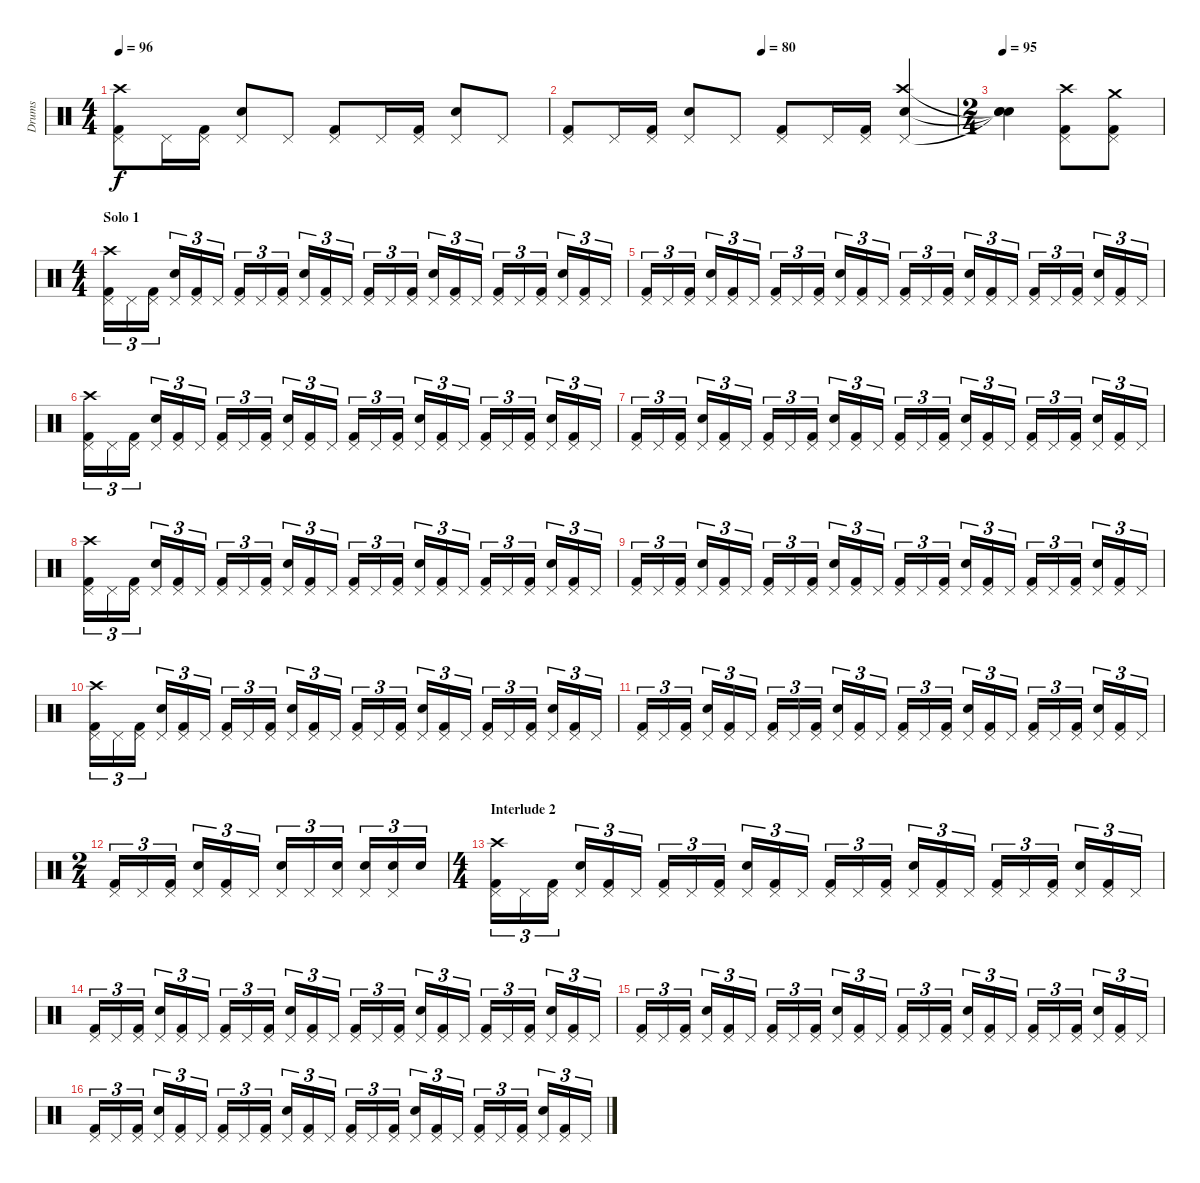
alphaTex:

\track ("Drums" "Drums") {instrument percussion}
\staff {score}
\articulation defaults
\ts (4 4)
\tempo 96
\clef neutral
\ks c
("Kick (hit) 2" "Pedal Hi-Hat (hit)" "Crash high (hit)").8{dy f} "Pedal Hi-Hat (hit)".16 ("Kick (hit) 2" "Pedal Hi-Hat (hit)").16 ("Snare (hit) 2" "Pedal Hi-Hat (hit)").8 "Pedal Hi-Hat (hit)".8 ("Kick (hit) 2" "Pedal Hi-Hat (hit)").8 "Pedal Hi-Hat (hit)".16 ("Kick (hit) 2" "Pedal Hi-Hat (hit)").16 ("Snare (hit) 2" "Pedal Hi-Hat (hit)").8 "Pedal Hi-Hat (hit)".8 |
\tempo (80 0.5)
("Kick (hit) 2" "Pedal Hi-Hat (hit)").8 "Pedal Hi-Hat (hit)".16 ("Kick (hit) 2" "Pedal Hi-Hat (hit)").16 ("Snare (hit) 2" "Pedal Hi-Hat (hit)").8 "Pedal Hi-Hat (hit)".8 ("Kick (hit) 2" "Pedal Hi-Hat (hit)").8 "Pedal Hi-Hat (hit)".16 ("Kick (hit) 2" "Pedal Hi-Hat (hit)").16 ("Snare (hit) 2" "Pedal Hi-Hat (hit)" "Crash high (hit)").4 |
\ts (2 4)
\tempo 95
("Snare (hit)"{t} "Snare (hit)"{t} "Snare (hit)"{t}).4 ("Kick (hit) 2" "Pedal Hi-Hat (hit)" "Crash high (hit)").8 ("Kick (hit) 2" "Pedal Hi-Hat (hit)" "Crash medium (hit)").8 |
\ts (4 4)
\section ("" "Solo 1")
("Kick (hit) 2" "Pedal Hi-Hat (hit)" "Crash high (hit)").16{tu (3 2)} "Pedal Hi-Hat (hit)".16{tu (3 2)} ("Kick (hit) 2" "Pedal Hi-Hat (hit)").16{tu (3 2)} ("Snare (hit) 2" "Pedal Hi-Hat (hit)").16{tu (3 2)} ("Kick (hit) 2" "Pedal Hi-Hat (hit)").16{tu (3 2)} "Pedal Hi-Hat (hit)".16{tu (3 2)} ("Kick (hit) 2" "Pedal Hi-Hat (hit)").16{tu (3 2)} "Pedal Hi-Hat (hit)".16{tu (3 2)} ("Kick (hit) 2" "Pedal Hi-Hat (hit)").16{tu (3 2)} ("Snare (hit) 2" "Pedal Hi-Hat (hit)").16{tu (3 2)} ("Kick (hit) 2" "Pedal Hi-Hat (hit)").16{tu (3 2)} "Pedal Hi-Hat (hit)".16{tu (3 2)} ("Kick (hit) 2" "Pedal Hi-Hat (hit)").16{tu (3 2)} "Pedal Hi-Hat (hit)".16{tu (3 2)} ("Kick (hit) 2" "Pedal Hi-Hat (hit)").16{tu (3 2)} ("Snare (hit) 2" "Pedal Hi-Hat (hit)").16{tu (3 2)} ("Kick (hit) 2" "Pedal Hi-Hat (hit)").16{tu (3 2)} "Pedal Hi-Hat (hit)".16{tu (3 2)} ("Kick (hit) 2" "Pedal Hi-Hat (hit)").16{tu (3 2)} "Pedal Hi-Hat (hit)".16{tu (3 2)} ("Kick (hit) 2" "Pedal Hi-Hat (hit)").16{tu (3 2)} ("Snare (hit) 2" "Pedal Hi-Hat (hit)").16{tu (3 2)} ("Kick (hit) 2" "Pedal Hi-Hat (hit)").16{tu (3 2)} "Pedal Hi-Hat (hit)".16{tu (3 2)} |
("Kick (hit) 2" "Pedal Hi-Hat (hit)").16{tu (3 2)} "Pedal Hi-Hat (hit)".16{tu (3 2)} ("Kick (hit) 2" "Pedal Hi-Hat (hit)").16{tu (3 2)} ("Snare (hit) 2" "Pedal Hi-Hat (hit)").16{tu (3 2)} ("Kick (hit) 2" "Pedal Hi-Hat (hit)").16{tu (3 2)} "Pedal Hi-Hat (hit)".16{tu (3 2)} ("Kick (hit) 2" "Pedal Hi-Hat (hit)").16{tu (3 2)} "Pedal Hi-Hat (hit)".16{tu (3 2)} ("Kick (hit) 2" "Pedal Hi-Hat (hit)").16{tu (3 2)} ("Snare (hit) 2" "Pedal Hi-Hat (hit)").16{tu (3 2)} ("Kick (hit) 2" "Pedal Hi-Hat (hit)").16{tu (3 2)} "Pedal Hi-Hat (hit)".16{tu (3 2)} ("Kick (hit) 2" "Pedal Hi-Hat (hit)").16{tu (3 2)} "Pedal Hi-Hat (hit)".16{tu (3 2)} ("Kick (hit) 2" "Pedal Hi-Hat (hit)").16{tu (3 2)} ("Snare (hit) 2" "Pedal Hi-Hat (hit)").16{tu (3 2)} ("Kick (hit) 2" "Pedal Hi-Hat (hit)").16{tu (3 2)} "Pedal Hi-Hat (hit)".16{tu (3 2)} ("Kick (hit) 2" "Pedal Hi-Hat (hit)").16{tu (3 2)} "Pedal Hi-Hat (hit)".16{tu (3 2)} ("Kick (hit) 2" "Pedal Hi-Hat (hit)").16{tu (3 2)} ("Snare (hit) 2" "Pedal Hi-Hat (hit)").16{tu (3 2)} ("Kick (hit) 2" "Pedal Hi-Hat (hit)").16{tu (3 2)} "Pedal Hi-Hat (hit)".16{tu (3 2)} |
("Kick (hit) 2" "Pedal Hi-Hat (hit)" "Crash high (hit)").16{tu (3 2)} "Pedal Hi-Hat (hit)".16{tu (3 2)} ("Kick (hit) 2" "Pedal Hi-Hat (hit)").16{tu (3 2)} ("Snare (hit) 2" "Pedal Hi-Hat (hit)").16{tu (3 2)} ("Kick (hit) 2" "Pedal Hi-Hat (hit)").16{tu (3 2)} "Pedal Hi-Hat (hit)".16{tu (3 2)} ("Kick (hit) 2" "Pedal Hi-Hat (hit)").16{tu (3 2)} "Pedal Hi-Hat (hit)".16{tu (3 2)} ("Kick (hit) 2" "Pedal Hi-Hat (hit)").16{tu (3 2)} ("Snare (hit) 2" "Pedal Hi-Hat (hit)").16{tu (3 2)} ("Kick (hit) 2" "Pedal Hi-Hat (hit)").16{tu (3 2)} "Pedal Hi-Hat (hit)".16{tu (3 2)} ("Kick (hit) 2" "Pedal Hi-Hat (hit)").16{tu (3 2)} "Pedal Hi-Hat (hit)".16{tu (3 2)} ("Kick (hit) 2" "Pedal Hi-Hat (hit)").16{tu (3 2)} ("Snare (hit) 2" "Pedal Hi-Hat (hit)").16{tu (3 2)} ("Kick (hit) 2" "Pedal Hi-Hat (hit)").16{tu (3 2)} "Pedal Hi-Hat (hit)".16{tu (3 2)} ("Kick (hit) 2" "Pedal Hi-Hat (hit)").16{tu (3 2)} "Pedal Hi-Hat (hit)".16{tu (3 2)} ("Kick (hit) 2" "Pedal Hi-Hat (hit)").16{tu (3 2)} ("Snare (hit) 2" "Pedal Hi-Hat (hit)").16{tu (3 2)} ("Kick (hit) 2" "Pedal Hi-Hat (hit)").16{tu (3 2)} "Pedal Hi-Hat (hit)".16{tu (3 2)} |
("Kick (hit) 2" "Pedal Hi-Hat (hit)").16{tu (3 2)} "Pedal Hi-Hat (hit)".16{tu (3 2)} ("Kick (hit) 2" "Pedal Hi-Hat (hit)").16{tu (3 2)} ("Snare (hit) 2" "Pedal Hi-Hat (hit)").16{tu (3 2)} ("Kick (hit) 2" "Pedal Hi-Hat (hit)").16{tu (3 2)} "Pedal Hi-Hat (hit)".16{tu (3 2)} ("Kick (hit) 2" "Pedal Hi-Hat (hit)").16{tu (3 2)} "Pedal Hi-Hat (hit)".16{tu (3 2)} ("Kick (hit) 2" "Pedal Hi-Hat (hit)").16{tu (3 2)} ("Snare (hit) 2" "Pedal Hi-Hat (hit)").16{tu (3 2)} ("Kick (hit) 2" "Pedal Hi-Hat (hit)").16{tu (3 2)} "Pedal Hi-Hat (hit)".16{tu (3 2)} ("Kick (hit) 2" "Pedal Hi-Hat (hit)").16{tu (3 2)} "Pedal Hi-Hat (hit)".16{tu (3 2)} ("Kick (hit) 2" "Pedal Hi-Hat (hit)").16{tu (3 2)} ("Snare (hit) 2" "Pedal Hi-Hat (hit)").16{tu (3 2)} ("Kick (hit) 2" "Pedal Hi-Hat (hit)").16{tu (3 2)} "Pedal Hi-Hat (hit)".16{tu (3 2)} ("Kick (hit) 2" "Pedal Hi-Hat (hit)").16{tu (3 2)} "Pedal Hi-Hat (hit)".16{tu (3 2)} ("Kick (hit) 2" "Pedal Hi-Hat (hit)").16{tu (3 2)} ("Snare (hit) 2" "Pedal Hi-Hat (hit)").16{tu (3 2)} ("Kick (hit) 2" "Pedal Hi-Hat (hit)").16{tu (3 2)} "Pedal Hi-Hat (hit)".16{tu (3 2)} |
("Kick (hit) 2" "Pedal Hi-Hat (hit)" "Crash high (hit)").16{tu (3 2)} "Pedal Hi-Hat (hit)".16{tu (3 2)} ("Kick (hit) 2" "Pedal Hi-Hat (hit)").16{tu (3 2)} ("Snare (hit) 2" "Pedal Hi-Hat (hit)").16{tu (3 2)} ("Kick (hit) 2" "Pedal Hi-Hat (hit)").16{tu (3 2)} "Pedal Hi-Hat (hit)".16{tu (3 2)} ("Kick (hit) 2" "Pedal Hi-Hat (hit)").16{tu (3 2)} "Pedal Hi-Hat (hit)".16{tu (3 2)} ("Kick (hit) 2" "Pedal Hi-Hat (hit)").16{tu (3 2)} ("Snare (hit) 2" "Pedal Hi-Hat (hit)").16{tu (3 2)} ("Kick (hit) 2" "Pedal Hi-Hat (hit)").16{tu (3 2)} "Pedal Hi-Hat (hit)".16{tu (3 2)} ("Kick (hit) 2" "Pedal Hi-Hat (hit)").16{tu (3 2)} "Pedal Hi-Hat (hit)".16{tu (3 2)} ("Kick (hit) 2" "Pedal Hi-Hat (hit)").16{tu (3 2)} ("Snare (hit) 2" "Pedal Hi-Hat (hit)").16{tu (3 2)} ("Kick (hit) 2" "Pedal Hi-Hat (hit)").16{tu (3 2)} "Pedal Hi-Hat (hit)".16{tu (3 2)} ("Kick (hit) 2" "Pedal Hi-Hat (hit)").16{tu (3 2)} "Pedal Hi-Hat (hit)".16{tu (3 2)} ("Kick (hit) 2" "Pedal Hi-Hat (hit)").16{tu (3 2)} ("Snare (hit) 2" "Pedal Hi-Hat (hit)").16{tu (3 2)} ("Kick (hit) 2" "Pedal Hi-Hat (hit)").16{tu (3 2)} "Pedal Hi-Hat (hit)".16{tu (3 2)} |
("Kick (hit) 2" "Pedal Hi-Hat (hit)").16{tu (3 2)} "Pedal Hi-Hat (hit)".16{tu (3 2)} ("Kick (hit) 2" "Pedal Hi-Hat (hit)").16{tu (3 2)} ("Snare (hit) 2" "Pedal Hi-Hat (hit)").16{tu (3 2)} ("Kick (hit) 2" "Pedal Hi-Hat (hit)").16{tu (3 2)} "Pedal Hi-Hat (hit)".16{tu (3 2)} ("Kick (hit) 2" "Pedal Hi-Hat (hit)").16{tu (3 2)} "Pedal Hi-Hat (hit)".16{tu (3 2)} ("Kick (hit) 2" "Pedal Hi-Hat (hit)").16{tu (3 2)} ("Snare (hit) 2" "Pedal Hi-Hat (hit)").16{tu (3 2)} ("Kick (hit) 2" "Pedal Hi-Hat (hit)").16{tu (3 2)} "Pedal Hi-Hat (hit)".16{tu (3 2)} ("Kick (hit) 2" "Pedal Hi-Hat (hit)").16{tu (3 2)} "Pedal Hi-Hat (hit)".16{tu (3 2)} ("Kick (hit) 2" "Pedal Hi-Hat (hit)").16{tu (3 2)} ("Snare (hit) 2" "Pedal Hi-Hat (hit)").16{tu (3 2)} ("Kick (hit) 2" "Pedal Hi-Hat (hit)").16{tu (3 2)} "Pedal Hi-Hat (hit)".16{tu (3 2)} ("Kick (hit) 2" "Pedal Hi-Hat (hit)").16{tu (3 2)} "Pedal Hi-Hat (hit)".16{tu (3 2)} ("Kick (hit) 2" "Pedal Hi-Hat (hit)").16{tu (3 2)} ("Snare (hit) 2" "Pedal Hi-Hat (hit)").16{tu (3 2)} ("Kick (hit) 2" "Pedal Hi-Hat (hit)").16{tu (3 2)} "Pedal Hi-Hat (hit)".16{tu (3 2)} |
("Kick (hit) 2" "Pedal Hi-Hat (hit)" "Crash high (hit)").16{tu (3 2)} "Pedal Hi-Hat (hit)".16{tu (3 2)} ("Kick (hit) 2" "Pedal Hi-Hat (hit)").16{tu (3 2)} ("Snare (hit) 2" "Pedal Hi-Hat (hit)").16{tu (3 2)} ("Kick (hit) 2" "Pedal Hi-Hat (hit)").16{tu (3 2)} "Pedal Hi-Hat (hit)".16{tu (3 2)} ("Kick (hit) 2" "Pedal Hi-Hat (hit)").16{tu (3 2)} "Pedal Hi-Hat (hit)".16{tu (3 2)} ("Kick (hit) 2" "Pedal Hi-Hat (hit)").16{tu (3 2)} ("Snare (hit) 2" "Pedal Hi-Hat (hit)").16{tu (3 2)} ("Kick (hit) 2" "Pedal Hi-Hat (hit)").16{tu (3 2)} "Pedal Hi-Hat (hit)".16{tu (3 2)} ("Kick (hit) 2" "Pedal Hi-Hat (hit)").16{tu (3 2)} "Pedal Hi-Hat (hit)".16{tu (3 2)} ("Kick (hit) 2" "Pedal Hi-Hat (hit)").16{tu (3 2)} ("Snare (hit) 2" "Pedal Hi-Hat (hit)").16{tu (3 2)} ("Kick (hit) 2" "Pedal Hi-Hat (hit)").16{tu (3 2)} "Pedal Hi-Hat (hit)".16{tu (3 2)} ("Kick (hit) 2" "Pedal Hi-Hat (hit)").16{tu (3 2)} "Pedal Hi-Hat (hit)".16{tu (3 2)} ("Kick (hit) 2" "Pedal Hi-Hat (hit)").16{tu (3 2)} ("Snare (hit) 2" "Pedal Hi-Hat (hit)").16{tu (3 2)} ("Kick (hit) 2" "Pedal Hi-Hat (hit)").16{tu (3 2)} "Pedal Hi-Hat (hit)".16{tu (3 2)} |
("Kick (hit) 2" "Pedal Hi-Hat (hit)").16{tu (3 2)} "Pedal Hi-Hat (hit)".16{tu (3 2)} ("Kick (hit) 2" "Pedal Hi-Hat (hit)").16{tu (3 2)} ("Snare (hit) 2" "Pedal Hi-Hat (hit)").16{tu (3 2)} ("Kick (hit) 2" "Pedal Hi-Hat (hit)").16{tu (3 2)} "Pedal Hi-Hat (hit)".16{tu (3 2)} ("Kick (hit) 2" "Pedal Hi-Hat (hit)").16{tu (3 2)} "Pedal Hi-Hat (hit)".16{tu (3 2)} ("Kick (hit) 2" "Pedal Hi-Hat (hit)").16{tu (3 2)} ("Snare (hit) 2" "Pedal Hi-Hat (hit)").16{tu (3 2)} ("Kick (hit) 2" "Pedal Hi-Hat (hit)").16{tu (3 2)} "Pedal Hi-Hat (hit)".16{tu (3 2)} ("Kick (hit) 2" "Pedal Hi-Hat (hit)").16{tu (3 2)} "Pedal Hi-Hat (hit)".16{tu (3 2)} ("Kick (hit) 2" "Pedal Hi-Hat (hit)").16{tu (3 2)} ("Snare (hit) 2" "Pedal Hi-Hat (hit)").16{tu (3 2)} ("Kick (hit) 2" "Pedal Hi-Hat (hit)").16{tu (3 2)} "Pedal Hi-Hat (hit)".16{tu (3 2)} ("Kick (hit) 2" "Pedal Hi-Hat (hit)").16{tu (3 2)} "Pedal Hi-Hat (hit)".16{tu (3 2)} ("Kick (hit) 2" "Pedal Hi-Hat (hit)").16{tu (3 2)} ("Snare (hit) 2" "Pedal Hi-Hat (hit)").16{tu (3 2)} ("Kick (hit) 2" "Pedal Hi-Hat (hit)").16{tu (3 2)} "Pedal Hi-Hat (hit)".16{tu (3 2)} |
\ts (2 4)
("Kick (hit) 2" "Pedal Hi-Hat (hit)").16{tu (3 2)} "Pedal Hi-Hat (hit)".16{tu (3 2)} ("Kick (hit) 2" "Pedal Hi-Hat (hit)").16{tu (3 2)} ("Snare (hit) 2" "Pedal Hi-Hat (hit)").16{tu (3 2)} ("Kick (hit) 2" "Pedal Hi-Hat (hit)").16{tu (3 2)} "Pedal Hi-Hat (hit)".16{tu (3 2)} ("Snare (hit) 2" "Pedal Hi-Hat (hit)").16{tu (3 2)} "Pedal Hi-Hat (hit)".16{tu (3 2)} ("Snare (hit) 2" "Pedal Hi-Hat (hit)").16{tu (3 2)} ("Snare (hit) 2" "Pedal Hi-Hat (hit)").16{tu (3 2)} ("Snare (hit) 2" "Pedal Hi-Hat (hit)").16{tu (3 2)} "Snare (hit) 2".16{tu (3 2)} |
\ts (4 4)
\section ("" "Interlude 2")
("Kick (hit) 2" "Pedal Hi-Hat (hit)" "Crash high (hit)").16{tu (3 2)} "Pedal Hi-Hat (hit)".16{tu (3 2)} ("Kick (hit) 2" "Pedal Hi-Hat (hit)").16{tu (3 2)} ("Snare (hit) 2" "Pedal Hi-Hat (hit)").16{tu (3 2)} ("Kick (hit) 2" "Pedal Hi-Hat (hit)").16{tu (3 2)} "Pedal Hi-Hat (hit)".16{tu (3 2)} ("Kick (hit) 2" "Pedal Hi-Hat (hit)").16{tu (3 2)} "Pedal Hi-Hat (hit)".16{tu (3 2)} ("Kick (hit) 2" "Pedal Hi-Hat (hit)").16{tu (3 2)} ("Snare (hit) 2" "Pedal Hi-Hat (hit)").16{tu (3 2)} ("Kick (hit) 2" "Pedal Hi-Hat (hit)").16{tu (3 2)} "Pedal Hi-Hat (hit)".16{tu (3 2)} ("Kick (hit) 2" "Pedal Hi-Hat (hit)").16{tu (3 2)} "Pedal Hi-Hat (hit)".16{tu (3 2)} ("Kick (hit) 2" "Pedal Hi-Hat (hit)").16{tu (3 2)} ("Snare (hit) 2" "Pedal Hi-Hat (hit)").16{tu (3 2)} ("Kick (hit) 2" "Pedal Hi-Hat (hit)").16{tu (3 2)} "Pedal Hi-Hat (hit)".16{tu (3 2)} ("Kick (hit) 2" "Pedal Hi-Hat (hit)").16{tu (3 2)} "Pedal Hi-Hat (hit)".16{tu (3 2)} ("Kick (hit) 2" "Pedal Hi-Hat (hit)").16{tu (3 2)} ("Snare (hit) 2" "Pedal Hi-Hat (hit)").16{tu (3 2)} ("Kick (hit) 2" "Pedal Hi-Hat (hit)").16{tu (3 2)} "Pedal Hi-Hat (hit)".16{tu (3 2)} |
("Kick (hit) 2" "Pedal Hi-Hat (hit)").16{tu (3 2)} "Pedal Hi-Hat (hit)".16{tu (3 2)} ("Kick (hit) 2" "Pedal Hi-Hat (hit)").16{tu (3 2)} ("Snare (hit) 2" "Pedal Hi-Hat (hit)").16{tu (3 2)} ("Kick (hit) 2" "Pedal Hi-Hat (hit)").16{tu (3 2)} "Pedal Hi-Hat (hit)".16{tu (3 2)} ("Kick (hit) 2" "Pedal Hi-Hat (hit)").16{tu (3 2)} "Pedal Hi-Hat (hit)".16{tu (3 2)} ("Kick (hit) 2" "Pedal Hi-Hat (hit)").16{tu (3 2)} ("Snare (hit) 2" "Pedal Hi-Hat (hit)").16{tu (3 2)} ("Kick (hit) 2" "Pedal Hi-Hat (hit)").16{tu (3 2)} "Pedal Hi-Hat (hit)".16{tu (3 2)} ("Kick (hit) 2" "Pedal Hi-Hat (hit)").16{tu (3 2)} "Pedal Hi-Hat (hit)".16{tu (3 2)} ("Kick (hit) 2" "Pedal Hi-Hat (hit)").16{tu (3 2)} ("Snare (hit) 2" "Pedal Hi-Hat (hit)").16{tu (3 2)} ("Kick (hit) 2" "Pedal Hi-Hat (hit)").16{tu (3 2)} "Pedal Hi-Hat (hit)".16{tu (3 2)} ("Kick (hit) 2" "Pedal Hi-Hat (hit)").16{tu (3 2)} "Pedal Hi-Hat (hit)".16{tu (3 2)} ("Kick (hit) 2" "Pedal Hi-Hat (hit)").16{tu (3 2)} ("Snare (hit) 2" "Pedal Hi-Hat (hit)").16{tu (3 2)} ("Kick (hit) 2" "Pedal Hi-Hat (hit)").16{tu (3 2)} "Pedal Hi-Hat (hit)".16{tu (3 2)} |
("Kick (hit) 2" "Pedal Hi-Hat (hit)").16{tu (3 2)} "Pedal Hi-Hat (hit)".16{tu (3 2)} ("Kick (hit) 2" "Pedal Hi-Hat (hit)").16{tu (3 2)} ("Snare (hit) 2" "Pedal Hi-Hat (hit)").16{tu (3 2)} ("Kick (hit) 2" "Pedal Hi-Hat (hit)").16{tu (3 2)} "Pedal Hi-Hat (hit)".16{tu (3 2)} ("Kick (hit) 2" "Pedal Hi-Hat (hit)").16{tu (3 2)} "Pedal Hi-Hat (hit)".16{tu (3 2)} ("Kick (hit) 2" "Pedal Hi-Hat (hit)").16{tu (3 2)} ("Snare (hit) 2" "Pedal Hi-Hat (hit)").16{tu (3 2)} ("Kick (hit) 2" "Pedal Hi-Hat (hit)").16{tu (3 2)} "Pedal Hi-Hat (hit)".16{tu (3 2)} ("Kick (hit) 2" "Pedal Hi-Hat (hit)").16{tu (3 2)} "Pedal Hi-Hat (hit)".16{tu (3 2)} ("Kick (hit) 2" "Pedal Hi-Hat (hit)").16{tu (3 2)} ("Snare (hit) 2" "Pedal Hi-Hat (hit)").16{tu (3 2)} ("Kick (hit) 2" "Pedal Hi-Hat (hit)").16{tu (3 2)} "Pedal Hi-Hat (hit)".16{tu (3 2)} ("Kick (hit) 2" "Pedal Hi-Hat (hit)").16{tu (3 2)} "Pedal Hi-Hat (hit)".16{tu (3 2)} ("Kick (hit) 2" "Pedal Hi-Hat (hit)").16{tu (3 2)} ("Snare (hit) 2" "Pedal Hi-Hat (hit)").16{tu (3 2)} ("Kick (hit) 2" "Pedal Hi-Hat (hit)").16{tu (3 2)} "Pedal Hi-Hat (hit)".16{tu (3 2)} |
("Kick (hit) 2" "Pedal Hi-Hat (hit)").16{tu (3 2)} "Pedal Hi-Hat (hit)".16{tu (3 2)} ("Kick (hit) 2" "Pedal Hi-Hat (hit)").16{tu (3 2)} ("Snare (hit) 2" "Pedal Hi-Hat (hit)").16{tu (3 2)} ("Kick (hit) 2" "Pedal Hi-Hat (hit)").16{tu (3 2)} "Pedal Hi-Hat (hit)".16{tu (3 2)} ("Kick (hit) 2" "Pedal Hi-Hat (hit)").16{tu (3 2)} "Pedal Hi-Hat (hit)".16{tu (3 2)} ("Kick (hit) 2" "Pedal Hi-Hat (hit)").16{tu (3 2)} ("Snare (hit) 2" "Pedal Hi-Hat (hit)").16{tu (3 2)} ("Kick (hit) 2" "Pedal Hi-Hat (hit)").16{tu (3 2)} "Pedal Hi-Hat (hit)".16{tu (3 2)} ("Kick (hit) 2" "Pedal Hi-Hat (hit)").16{tu (3 2)} "Pedal Hi-Hat (hit)".16{tu (3 2)} ("Kick (hit) 2" "Pedal Hi-Hat (hit)").16{tu (3 2)} ("Snare (hit) 2" "Pedal Hi-Hat (hit)").16{tu (3 2)} ("Kick (hit) 2" "Pedal Hi-Hat (hit)").16{tu (3 2)} "Pedal Hi-Hat (hit)".16{tu (3 2)} ("Kick (hit) 2" "Pedal Hi-Hat (hit)").16{tu (3 2)} "Pedal Hi-Hat (hit)".16{tu (3 2)} ("Kick (hit) 2" "Pedal Hi-Hat (hit)").16{tu (3 2)} ("Snare (hit) 2" "Pedal Hi-Hat (hit)").16{tu (3 2)} ("Kick (hit) 2" "Pedal Hi-Hat (hit)").16{tu (3 2)} "Pedal Hi-Hat (hit)".16{tu (3 2)}
